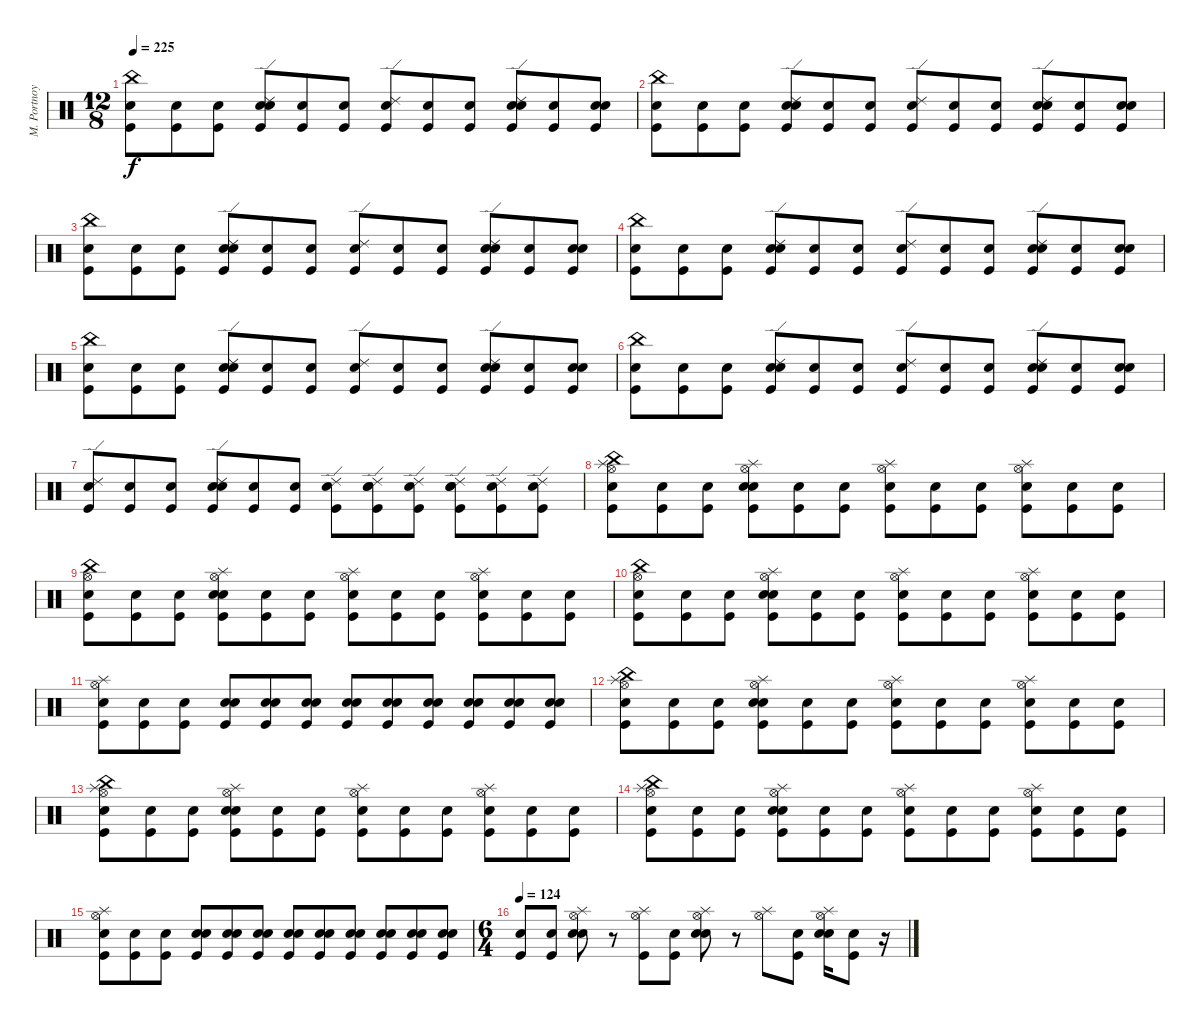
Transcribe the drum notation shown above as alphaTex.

\track ("M. Portnoy" "M. Portnoy") {instrument percussion}
\staff {score}
\articulation defaults
\ts (12 8)
\tempo 225
\clef neutral
\ks c
("Snare (hit)" "Kick (hit)" "China (hit)").8{dy f} ("Snare (hit)" "Kick (hit)").8 ("Snare (hit)" "Kick (hit)").8 ("Snare (hit)" "Kick (hit)" "Snare (hit) 2" "Ride (edge) 2").8 ("Snare (hit)" "Kick (hit)").8 ("Snare (hit)" "Kick (hit)").8 ("Snare (hit)" "Kick (hit)" "Ride (edge) 2").8 ("Snare (hit)" "Kick (hit)").8 ("Snare (hit)" "Kick (hit)").8 ("Snare (hit)" "Kick (hit)" "Snare (hit) 2" "Ride (edge) 2").8 ("Snare (hit)" "Kick (hit)").8 ("Snare (hit)" "Kick (hit)" "Snare (hit) 2").8 |
("Snare (hit)" "Kick (hit)" "China (hit)").8 ("Snare (hit)" "Kick (hit)").8 ("Snare (hit)" "Kick (hit)").8 ("Snare (hit)" "Kick (hit)" "Snare (hit) 2" "Ride (edge) 2").8 ("Snare (hit)" "Kick (hit)").8 ("Snare (hit)" "Kick (hit)").8 ("Snare (hit)" "Kick (hit)" "Ride (edge) 2").8 ("Snare (hit)" "Kick (hit)").8 ("Snare (hit)" "Kick (hit)").8 ("Snare (hit)" "Kick (hit)" "Snare (hit) 2" "Ride (edge) 2").8 ("Snare (hit)" "Kick (hit)").8 ("Snare (hit)" "Kick (hit)" "Snare (hit) 2").8 |
("Snare (hit)" "Kick (hit)" "China (hit)").8 ("Snare (hit)" "Kick (hit)").8 ("Snare (hit)" "Kick (hit)").8 ("Snare (hit)" "Kick (hit)" "Snare (hit) 2" "Ride (edge) 2").8 ("Snare (hit)" "Kick (hit)").8 ("Snare (hit)" "Kick (hit)").8 ("Snare (hit)" "Kick (hit)" "Ride (edge) 2").8 ("Snare (hit)" "Kick (hit)").8 ("Snare (hit)" "Kick (hit)").8 ("Snare (hit)" "Kick (hit)" "Snare (hit) 2" "Ride (edge) 2").8 ("Snare (hit)" "Kick (hit)").8 ("Snare (hit)" "Kick (hit)" "Snare (hit) 2").8 |
("Snare (hit)" "Kick (hit)" "China (hit)").8 ("Snare (hit)" "Kick (hit)").8 ("Snare (hit)" "Kick (hit)").8 ("Snare (hit)" "Kick (hit)" "Snare (hit) 2" "Ride (edge) 2").8 ("Snare (hit)" "Kick (hit)").8 ("Snare (hit)" "Kick (hit)").8 ("Snare (hit)" "Kick (hit)" "Ride (edge) 2").8 ("Snare (hit)" "Kick (hit)").8 ("Snare (hit)" "Kick (hit)").8 ("Snare (hit)" "Kick (hit)" "Snare (hit) 2" "Ride (edge) 2").8 ("Snare (hit)" "Kick (hit)").8 ("Snare (hit)" "Kick (hit)" "Snare (hit) 2").8 |
("Snare (hit)" "Kick (hit)" "China (hit)").8 ("Snare (hit)" "Kick (hit)").8 ("Snare (hit)" "Kick (hit)").8 ("Snare (hit)" "Kick (hit)" "Snare (hit) 2" "Ride (edge) 2").8 ("Snare (hit)" "Kick (hit)").8 ("Snare (hit)" "Kick (hit)").8 ("Snare (hit)" "Kick (hit)" "Ride (edge) 2").8 ("Snare (hit)" "Kick (hit)").8 ("Snare (hit)" "Kick (hit)").8 ("Snare (hit)" "Kick (hit)" "Snare (hit) 2" "Ride (edge) 2").8 ("Snare (hit)" "Kick (hit)").8 ("Snare (hit)" "Kick (hit)" "Snare (hit) 2").8 |
("Snare (hit)" "Kick (hit)" "China (hit)").8 ("Snare (hit)" "Kick (hit)").8 ("Snare (hit)" "Kick (hit)").8 ("Snare (hit)" "Kick (hit)" "Snare (hit) 2" "Ride (edge) 2").8 ("Snare (hit)" "Kick (hit)").8 ("Snare (hit)" "Kick (hit)").8 ("Snare (hit)" "Kick (hit)" "Ride (edge) 2").8 ("Snare (hit)" "Kick (hit)").8 ("Snare (hit)" "Kick (hit)").8 ("Snare (hit)" "Kick (hit)" "Snare (hit) 2" "Ride (edge) 2").8 ("Snare (hit)" "Kick (hit)").8 ("Snare (hit)" "Kick (hit)" "Snare (hit) 2").8 |
("Snare (hit)" "Kick (hit)" "Ride (edge) 2").8 ("Snare (hit)" "Kick (hit)").8 ("Snare (hit)" "Kick (hit)").8 ("Snare (hit)" "Kick (hit)" "Snare (hit) 2" "Ride (edge) 2").8 ("Snare (hit)" "Kick (hit)").8 ("Snare (hit)" "Kick (hit)").8 ("Snare (hit)" "Kick (hit)" "Ride (edge) 2").8 ("Snare (hit)" "Kick (hit)" "Snare (hit) 2" "Ride (edge) 2").8 ("Snare (hit)" "Kick (hit)" "Ride (edge) 2").8 ("Snare (hit)" "Kick (hit)" "Snare (hit) 2" "Ride (edge) 2").8 ("Snare (hit)" "Kick (hit)" "Ride (edge) 2").8 ("Snare (hit)" "Kick (hit)" "Ride (edge) 2").8 |
("Snare (hit)" "Kick (hit)" "Hi-Hat (open)" "China (hit)" "Splash (hit)").8 ("Snare (hit)" "Kick (hit)").8 ("Snare (hit)" "Kick (hit)").8 ("Snare (hit)" "Kick (hit)" "Snare (hit) 2" "Hi-Hat (open)" "Splash (hit)").8 ("Snare (hit)" "Kick (hit)").8 ("Snare (hit)" "Kick (hit)").8 ("Snare (hit)" "Kick (hit)" "Hi-Hat (open)" "Splash (hit)").8 ("Snare (hit)" "Kick (hit)").8 ("Snare (hit)" "Kick (hit)").8 ("Snare (hit)" "Kick (hit)" "Hi-Hat (open)" "Splash (hit)").8 ("Snare (hit)" "Kick (hit)").8 ("Snare (hit)" "Kick (hit)").8 |
("Snare (hit)" "Kick (hit)" "Hi-Hat (open)" "China (hit)").8 ("Snare (hit)" "Kick (hit)").8 ("Snare (hit)" "Kick (hit)").8 ("Snare (hit)" "Kick (hit)" "Snare (hit) 2" "Hi-Hat (open)" "Splash (hit)").8 ("Snare (hit)" "Kick (hit)").8 ("Snare (hit)" "Kick (hit)").8 ("Snare (hit)" "Kick (hit)" "Hi-Hat (open)" "Splash (hit)").8 ("Snare (hit)" "Kick (hit)").8 ("Snare (hit)" "Kick (hit)").8 ("Snare (hit)" "Kick (hit)" "Hi-Hat (open)" "Splash (hit)").8 ("Snare (hit)" "Kick (hit)").8 ("Snare (hit)" "Kick (hit)").8 |
("Snare (hit)" "Kick (hit)" "Hi-Hat (open)" "China (hit)").8 ("Snare (hit)" "Kick (hit)").8 ("Snare (hit)" "Kick (hit)").8 ("Snare (hit)" "Kick (hit)" "Snare (hit) 2" "Hi-Hat (open)" "Splash (hit)").8 ("Snare (hit)" "Kick (hit)").8 ("Snare (hit)" "Kick (hit)").8 ("Snare (hit)" "Kick (hit)" "Hi-Hat (open)" "Splash (hit)").8 ("Snare (hit)" "Kick (hit)").8 ("Snare (hit)" "Kick (hit)").8 ("Snare (hit)" "Kick (hit)" "Hi-Hat (open)" "Splash (hit)").8 ("Snare (hit)" "Kick (hit)").8 ("Snare (hit)" "Kick (hit)").8 |
("Snare (hit)" "Kick (hit)" "Hi-Hat (open)" "Splash (hit)").8 ("Snare (hit)" "Kick (hit)").8 ("Snare (hit)" "Kick (hit)").8 ("Snare (hit)" "Kick (hit)" "Snare (hit) 2").8 ("Snare (hit)" "Kick (hit)" "Snare (hit) 2").8 ("Snare (hit)" "Kick (hit)" "Snare (hit) 2").8 ("Snare (hit)" "Kick (hit)" "Snare (hit) 2").8 ("Snare (hit)" "Kick (hit)" "Snare (hit) 2").8 ("Snare (hit)" "Kick (hit)" "Snare (hit) 2").8 ("Snare (hit)" "Kick (hit)" "Snare (hit) 2").8 ("Snare (hit)" "Kick (hit)" "Snare (hit) 2").8 ("Snare (hit)" "Kick (hit)" "Snare (hit) 2").8 |
("Snare (hit)" "Kick (hit)" "Hi-Hat (open)" "China (hit)" "Splash (hit)").8 ("Snare (hit)" "Kick (hit)").8 ("Snare (hit)" "Kick (hit)").8 ("Snare (hit)" "Kick (hit)" "Snare (hit) 2" "Hi-Hat (open)" "Splash (hit)").8 ("Snare (hit)" "Kick (hit)").8 ("Snare (hit)" "Kick (hit)").8 ("Snare (hit)" "Kick (hit)" "Hi-Hat (open)" "Splash (hit)").8 ("Snare (hit)" "Kick (hit)").8 ("Snare (hit)" "Kick (hit)").8 ("Snare (hit)" "Kick (hit)" "Hi-Hat (open)" "Splash (hit)").8 ("Snare (hit)" "Kick (hit)").8 ("Snare (hit)" "Kick (hit)").8 |
("Snare (hit)" "Kick (hit)" "Hi-Hat (open)" "China (hit)" "Splash (hit)").8 ("Snare (hit)" "Kick (hit)").8 ("Snare (hit)" "Kick (hit)").8 ("Snare (hit)" "Kick (hit)" "Snare (hit) 2" "Hi-Hat (open)" "Splash (hit)").8 ("Snare (hit)" "Kick (hit)").8 ("Snare (hit)" "Kick (hit)").8 ("Snare (hit)" "Kick (hit)" "Hi-Hat (open)" "Splash (hit)").8 ("Snare (hit)" "Kick (hit)").8 ("Snare (hit)" "Kick (hit)").8 ("Snare (hit)" "Kick (hit)" "Hi-Hat (open)" "Splash (hit)").8 ("Snare (hit)" "Kick (hit)").8 ("Snare (hit)" "Kick (hit)").8 |
("Snare (hit)" "Kick (hit)" "Hi-Hat (open)" "China (hit)" "Splash (hit)").8 ("Snare (hit)" "Kick (hit)").8 ("Snare (hit)" "Kick (hit)").8 ("Snare (hit)" "Kick (hit)" "Snare (hit) 2" "Hi-Hat (open)" "Splash (hit)").8 ("Snare (hit)" "Kick (hit)").8 ("Snare (hit)" "Kick (hit)").8 ("Snare (hit)" "Kick (hit)" "Hi-Hat (open)" "Splash (hit)").8 ("Snare (hit)" "Kick (hit)").8 ("Snare (hit)" "Kick (hit)").8 ("Snare (hit)" "Kick (hit)" "Hi-Hat (open)" "Splash (hit)").8 ("Snare (hit)" "Kick (hit)").8 ("Snare (hit)" "Kick (hit)").8 |
("Snare (hit)" "Kick (hit)" "Hi-Hat (open)" "Splash (hit)").8 ("Snare (hit)" "Kick (hit)").8 ("Snare (hit)" "Kick (hit)").8 ("Snare (hit)" "Kick (hit)" "Snare (hit) 2").8 ("Snare (hit)" "Kick (hit)" "Snare (hit) 2").8 ("Snare (hit)" "Kick (hit)" "Snare (hit) 2").8 ("Snare (hit)" "Kick (hit)" "Snare (hit) 2").8 ("Snare (hit)" "Kick (hit)" "Snare (hit) 2").8 ("Snare (hit)" "Kick (hit)" "Snare (hit) 2").8 ("Snare (hit)" "Kick (hit)" "Snare (hit) 2").8 ("Snare (hit)" "Kick (hit)" "Snare (hit) 2").8 ("Snare (hit)" "Kick (hit)" "Snare (hit) 2").8 |
\ts (6 4)
\tempo 124
("Snare (hit)" "Kick (hit)").8 ("Snare (hit)" "Kick (hit)").8 ("Snare (hit)" "Snare (hit) 2" "Hi-Hat (open)" "Splash (hit)").8 r.8 ("Kick (hit)" "Hi-Hat (open)" "Splash (hit)").8 ("Snare (hit)" "Kick (hit)").8 ("Snare (hit)" "Snare (hit) 2" "Hi-Hat (open)" "Splash (hit)").8 r.8 ("Hi-Hat (open)" "Splash (hit)").8 ("Snare (hit)" "Kick (hit)").8 ("Snare (hit)" "Snare (hit) 2" "Hi-Hat (open)" "Splash (hit)").16 ("Snare (hit)" "Kick (hit)").8 r.16
